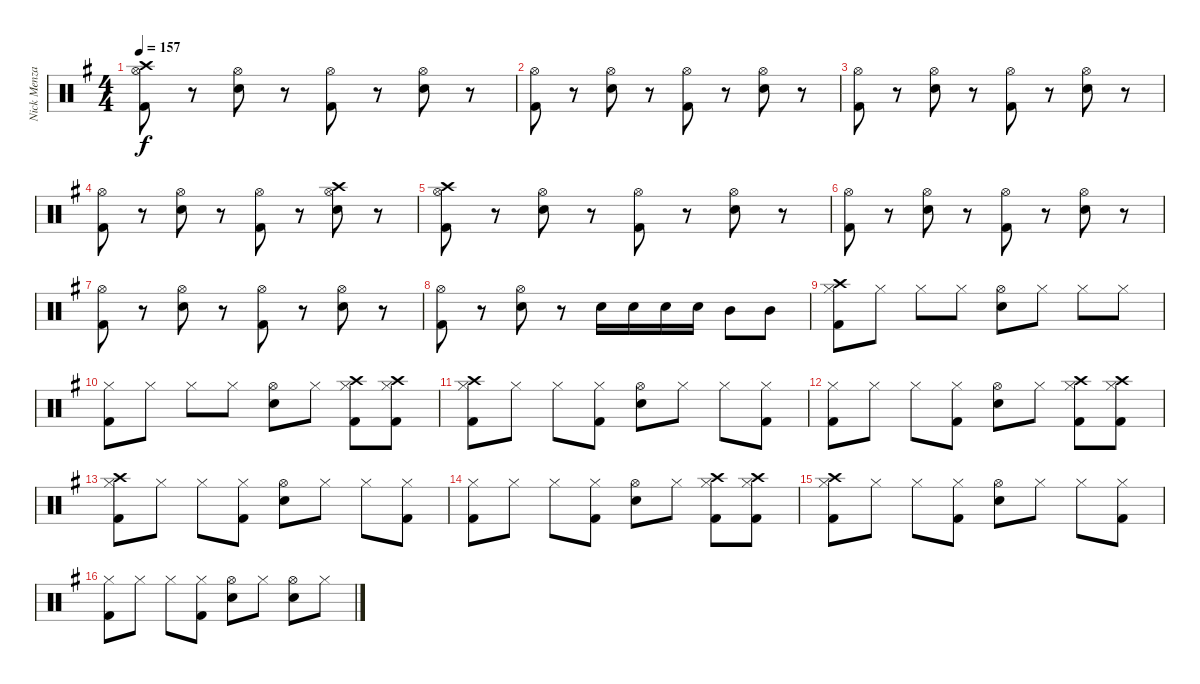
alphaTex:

\track ("Nick Menza" "Nick Menza") {instrument percussion}
\staff {score}
\articulation defaults
\ts (4 4)
\tempo 157
\clef neutral
\ks g
("Hi-Hat (open)" "Kick (hit) 2" "Crash high (hit)").8{dy f} r.8 ("Hi-Hat (open)" "Snare (hit) 2").8 r.8 ("Hi-Hat (open)" "Kick (hit) 2").8 r.8 ("Hi-Hat (open)" "Snare (hit) 2").8 r.8 |
("Hi-Hat (open)" "Kick (hit) 2").8 r.8 ("Hi-Hat (open)" "Snare (hit) 2").8 r.8 ("Hi-Hat (open)" "Kick (hit) 2").8 r.8 ("Hi-Hat (open)" "Snare (hit) 2").8 r.8 |
("Hi-Hat (open)" "Kick (hit) 2").8 r.8 ("Hi-Hat (open)" "Snare (hit) 2").8 r.8 ("Hi-Hat (open)" "Kick (hit) 2").8 r.8 ("Hi-Hat (open)" "Snare (hit) 2").8 r.8 |
("Hi-Hat (open)" "Kick (hit) 2").8 r.8 ("Hi-Hat (open)" "Snare (hit) 2").8 r.8 ("Hi-Hat (open)" "Kick (hit) 2").8 r.8 ("Hi-Hat (open)" "Snare (hit) 2" "Crash high (hit)").8 r.8 |
("Hi-Hat (open)" "Kick (hit) 2" "Crash high (hit)").8 r.8 ("Hi-Hat (open)" "Snare (hit) 2").8 r.8 ("Hi-Hat (open)" "Kick (hit) 2").8 r.8 ("Hi-Hat (open)" "Snare (hit) 2").8 r.8 |
("Hi-Hat (open)" "Kick (hit) 2").8 r.8 ("Hi-Hat (open)" "Snare (hit) 2").8 r.8 ("Hi-Hat (open)" "Kick (hit) 2").8 r.8 ("Hi-Hat (open)" "Snare (hit) 2").8 r.8 |
("Hi-Hat (open)" "Kick (hit) 2").8 r.8 ("Hi-Hat (open)" "Snare (hit) 2").8 r.8 ("Hi-Hat (open)" "Kick (hit) 2").8 r.8 ("Hi-Hat (open)" "Snare (hit) 2").8 r.8 |
("Hi-Hat (open)" "Kick (hit) 2").8 r.8 ("Hi-Hat (open)" "Snare (hit) 2").8 r.8 "Snare (hit) 2".16 "Snare (hit) 2".16 "Snare (hit) 2".16 "Snare (hit) 2".16 "Mid Tom (hit)".8 "Mid Tom (hit)".8 |
("Hi-Hat (closed)" "Crash high (hit)" "Kick (hit) 2").8 "Hi-Hat (closed)".8 "Hi-Hat (closed)".8 "Hi-Hat (closed)".8 ("Hi-Hat (open)" "Snare (hit) 2").8 "Hi-Hat (closed)".8 "Hi-Hat (closed)".8 "Hi-Hat (closed)".8 |
("Hi-Hat (closed)" "Kick (hit) 2").8 "Hi-Hat (closed)".8 "Hi-Hat (closed)".8 "Hi-Hat (closed)".8 ("Hi-Hat (open)" "Snare (hit) 2").8 "Hi-Hat (closed)".8 ("Hi-Hat (closed)" "Kick (hit) 2" "Crash high (hit)").8 ("Hi-Hat (closed)" "Kick (hit) 2" "Crash high (hit)").8 |
("Hi-Hat (closed)" "Crash high (hit)" "Kick (hit) 2").8 "Hi-Hat (closed)".8 "Hi-Hat (closed)".8 ("Hi-Hat (closed)" "Kick (hit) 2").8 ("Hi-Hat (open)" "Snare (hit) 2").8 "Hi-Hat (closed)".8 "Hi-Hat (closed)".8 ("Hi-Hat (closed)" "Kick (hit) 2").8 |
("Hi-Hat (closed)" "Kick (hit) 2").8 "Hi-Hat (closed)".8 "Hi-Hat (closed)".8 ("Hi-Hat (closed)" "Kick (hit) 2").8 ("Hi-Hat (open)" "Snare (hit) 2").8 "Hi-Hat (closed)".8 ("Hi-Hat (closed)" "Kick (hit) 2" "Crash high (hit)").8 ("Hi-Hat (closed)" "Kick (hit) 2" "Crash high (hit)").8 |
("Hi-Hat (closed)" "Crash high (hit)" "Kick (hit) 2").8 "Hi-Hat (closed)".8 "Hi-Hat (closed)".8 ("Hi-Hat (closed)" "Kick (hit) 2").8 ("Hi-Hat (open)" "Snare (hit) 2").8 "Hi-Hat (closed)".8 "Hi-Hat (closed)".8 ("Hi-Hat (closed)" "Kick (hit) 2").8 |
("Hi-Hat (closed)" "Kick (hit) 2").8 "Hi-Hat (closed)".8 "Hi-Hat (closed)".8 ("Hi-Hat (closed)" "Kick (hit) 2").8 ("Hi-Hat (open)" "Snare (hit) 2").8 "Hi-Hat (closed)".8 ("Hi-Hat (closed)" "Kick (hit) 2" "Crash high (hit)").8 ("Hi-Hat (closed)" "Kick (hit) 2" "Crash high (hit)").8 |
("Hi-Hat (closed)" "Crash high (hit)" "Kick (hit) 2").8 "Hi-Hat (closed)".8 "Hi-Hat (closed)".8 ("Hi-Hat (closed)" "Kick (hit) 2").8 ("Hi-Hat (open)" "Snare (hit) 2").8 "Hi-Hat (closed)".8 "Hi-Hat (closed)".8 ("Hi-Hat (closed)" "Kick (hit) 2").8 |
("Hi-Hat (closed)" "Kick (hit) 2").8 "Hi-Hat (closed)".8 "Hi-Hat (closed)".8 ("Hi-Hat (closed)" "Kick (hit) 2").8 ("Hi-Hat (open)" "Snare (hit) 2").8 "Hi-Hat (closed)".8 ("Hi-Hat (open)" "Snare (hit) 2").8 "Hi-Hat (closed)".8
